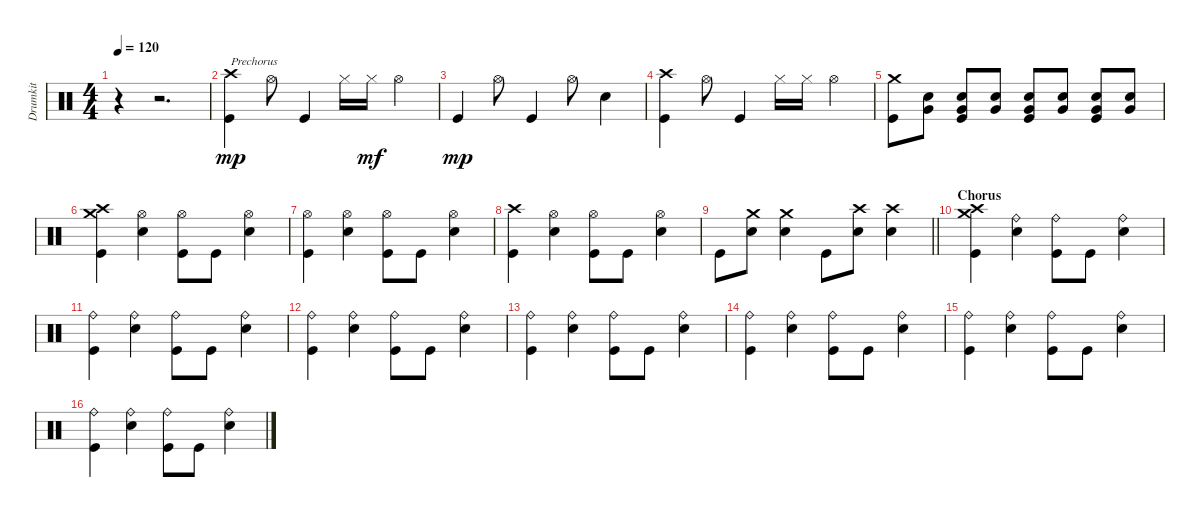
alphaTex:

\track ("Drumkit" "Drumkit") {instrument percussion}
\staff {score}
\articulation defaults
\ts (4 4)
\tempo 120
\clef neutral
\ks c
r.4{dy mp} r.2{d} |
("Kick (hit)" "Crash high (hit)").4{txt "Prechorus"} "Hi-Hat (open)".8 "Kick (hit)".4 "Hi-Hat (closed)".16 "Hi-Hat (closed)".16{dy mf} "Hi-Hat (open)".4 |
"Kick (hit)".4{dy mp} "Hi-Hat (open)".8 "Kick (hit)".4 "Hi-Hat (open)".8 "Snare (hit) 2".4 |
("Kick (hit)" "Crash high (hit)").4 "Hi-Hat (open)".8 "Kick (hit)".4 "Hi-Hat (closed)".16 "Hi-Hat (closed)".16 "Hi-Hat (open)".4 |
("Kick (hit)" "Crash medium (hit)").8 ("Snare (hit) 2" "Very Low Tom (hit)").8 ("Snare (hit) 2" "Very Low Tom (hit)" "Kick (hit)").8 ("Snare (hit) 2" "Very Low Tom (hit)").8 ("Snare (hit) 2" "Very Low Tom (hit)" "Kick (hit)").8 ("Snare (hit) 2" "Very Low Tom (hit)").8 ("Snare (hit) 2" "Very Low Tom (hit)" "Kick (hit)").8 ("Snare (hit) 2" "Very Low Tom (hit)").8 |
("Kick (hit)" "Crash high (hit)" "Crash medium (hit)").4 ("Snare (hit) 2" "Hi-Hat (open)").4 ("Kick (hit)" "Hi-Hat (open)").8 "Kick (hit)".8 ("Snare (hit) 2" "Hi-Hat (open)").4 |
("Kick (hit)" "Hi-Hat (open)").4 ("Snare (hit) 2" "Hi-Hat (open)").4 ("Kick (hit)" "Hi-Hat (open)").8 "Kick (hit)".8 ("Snare (hit) 2" "Hi-Hat (open)").4 |
("Kick (hit)" "Crash high (hit)").4 ("Snare (hit) 2" "Hi-Hat (open)").4 ("Kick (hit)" "Hi-Hat (open)").8 "Kick (hit)".8 ("Snare (hit) 2" "Hi-Hat (open)").4 |
\barLineRight lightlight "Kick (hit)".8
("Snare (hit) 2" "Crash medium (hit)").8 ("Snare (hit) 2" "Crash medium (hit)").4 "Kick (hit)".8 ("Snare (hit) 2" "Crash high (hit)").8 ("Snare (hit) 2" "Crash high (hit)").4 |
\section ("" "Chorus")
("Kick (hit)" "Crash high (hit)" "Crash medium (hit)").4 ("Snare (hit) 2" "Ride (bell)").4 ("Kick (hit)" "Ride (bell)").8 "Kick (hit)".8 ("Snare (hit) 2" "Ride (bell)").4 |
("Kick (hit)" "Ride (bell)").4 ("Snare (hit) 2" "Ride (bell)").4 ("Kick (hit)" "Ride (bell)").8 "Kick (hit)".8 ("Snare (hit) 2" "Ride (bell)").4 |
("Kick (hit)" "Ride (bell)").4 ("Snare (hit) 2" "Ride (bell)").4 ("Kick (hit)" "Ride (bell)").8 "Kick (hit)".8 ("Snare (hit) 2" "Ride (bell)").4 |
("Kick (hit)" "Ride (bell)").4 ("Snare (hit) 2" "Ride (bell)").4 ("Kick (hit)" "Ride (bell)").8 "Kick (hit)".8 ("Snare (hit) 2" "Ride (bell)").4 |
("Kick (hit)" "Ride (bell)").4 ("Snare (hit) 2" "Ride (bell)").4 ("Kick (hit)" "Ride (bell)").8 "Kick (hit)".8 ("Snare (hit) 2" "Ride (bell)").4 |
("Kick (hit)" "Ride (bell)").4 ("Snare (hit) 2" "Ride (bell)").4 ("Kick (hit)" "Ride (bell)").8 "Kick (hit)".8 ("Snare (hit) 2" "Ride (bell)").4 |
("Kick (hit)" "Ride (bell)").4 ("Snare (hit) 2" "Ride (bell)").4 ("Kick (hit)" "Ride (bell)").8 "Kick (hit)".8 ("Snare (hit) 2" "Ride (bell)").4
